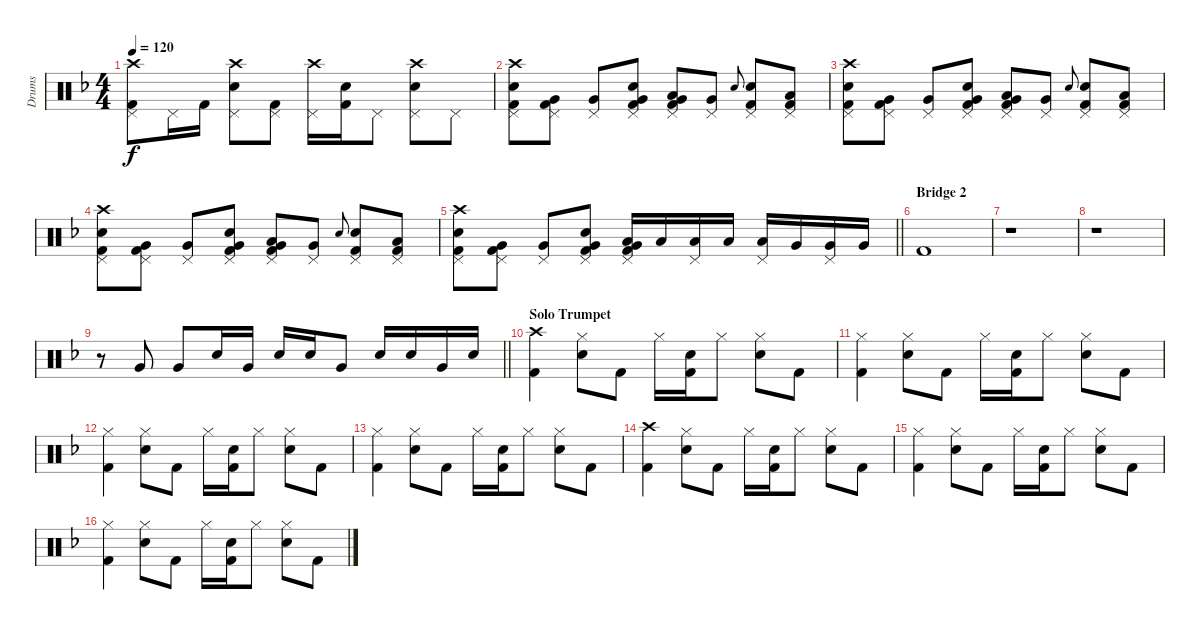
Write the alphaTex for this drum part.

\track ("Drums" "Drums") {instrument percussion}
\staff {score}
\articulation defaults
\ts (4 4)
\tempo 120
\clef neutral
\ks f
("Crash high (hit)" "Kick (hit) 2" "Pedal Hi-Hat (hit)").8{dy f} "Pedal Hi-Hat (hit)".16 "Kick (hit) 2".16 ("Crash high (hit)" "Snare (hit) 2" "Pedal Hi-Hat (hit)").8 ("Kick (hit) 2" "Pedal Hi-Hat (hit)").8 ("Crash high (hit)" "Pedal Hi-Hat (hit)").16 ("Snare (hit) 2" "Kick (hit) 2").16 "Pedal Hi-Hat (hit)".8 ("Crash high (hit)" "Snare (hit) 2" "Pedal Hi-Hat (hit)").8 "Pedal Hi-Hat (hit)".8 |
("Crash high (hit)" "Snare (hit) 2" "Kick (hit) 2" "Pedal Hi-Hat (hit)").8 ("Very Low Tom (hit)" "Kick (hit) 2" "Pedal Hi-Hat (hit)").8 ("Very Low Tom (hit)" "Pedal Hi-Hat (hit)").8 ("Snare (hit) 2" "Very Low Tom (hit)" "Kick (hit) 2" "Pedal Hi-Hat (hit)").8 ("Low Tom (hit)" "Very Low Tom (hit)" "Kick (hit) 2" "Pedal Hi-Hat (hit)").8 ("Very Low Tom (hit)" "Pedal Hi-Hat (hit)").8 "Snare (hit) 2".8{gr onbeat} ("Snare (hit) 2" "Kick (hit) 2" "Pedal Hi-Hat (hit)").8 ("Low Tom (hit)" "Kick (hit) 2" "Pedal Hi-Hat (hit)").8 |
("Crash high (hit)" "Snare (hit) 2" "Kick (hit) 2" "Pedal Hi-Hat (hit)").8 ("Very Low Tom (hit)" "Kick (hit) 2" "Pedal Hi-Hat (hit)").8 ("Very Low Tom (hit)" "Pedal Hi-Hat (hit)").8 ("Snare (hit) 2" "Very Low Tom (hit)" "Kick (hit) 2" "Pedal Hi-Hat (hit)").8 ("Low Tom (hit)" "Very Low Tom (hit)" "Kick (hit) 2" "Pedal Hi-Hat (hit)").8 ("Very Low Tom (hit)" "Pedal Hi-Hat (hit)").8 "Snare (hit) 2".8{gr onbeat} ("Snare (hit) 2" "Kick (hit) 2" "Pedal Hi-Hat (hit)").8 ("Low Tom (hit)" "Kick (hit) 2" "Pedal Hi-Hat (hit)").8 |
("Crash high (hit)" "Snare (hit) 2" "Kick (hit) 2" "Pedal Hi-Hat (hit)").8 ("Very Low Tom (hit)" "Kick (hit) 2" "Pedal Hi-Hat (hit)").8 ("Very Low Tom (hit)" "Pedal Hi-Hat (hit)").8 ("Snare (hit) 2" "Very Low Tom (hit)" "Kick (hit) 2" "Pedal Hi-Hat (hit)").8 ("Low Tom (hit)" "Very Low Tom (hit)" "Kick (hit) 2" "Pedal Hi-Hat (hit)").8 ("Very Low Tom (hit)" "Pedal Hi-Hat (hit)").8 "Snare (hit) 2".8{gr onbeat} ("Snare (hit) 2" "Kick (hit) 2" "Pedal Hi-Hat (hit)").8 ("Low Tom (hit)" "Kick (hit) 2" "Pedal Hi-Hat (hit)").8 |
\barLineRight lightlight
("Crash high (hit)" "Snare (hit) 2" "Kick (hit) 2" "Pedal Hi-Hat (hit)").8 ("Very Low Tom (hit)" "Kick (hit) 2" "Pedal Hi-Hat (hit)").8 ("Very Low Tom (hit)" "Pedal Hi-Hat (hit)").8 ("Snare (hit) 2" "Very Low Tom (hit)" "Kick (hit) 2" "Pedal Hi-Hat (hit)").8 ("Low Tom (hit)" "Very Low Tom (hit)" "Kick (hit) 2" "Pedal Hi-Hat (hit)").16 "Low Tom (hit)".16 ("Low Floor Tom (hit)" "Pedal Hi-Hat (hit)").16 "Low Floor Tom (hit)".16 ("Low Floor Tom (hit)" "Pedal Hi-Hat (hit)").16 "Very Low Tom (hit)".16 ("Very Low Tom (hit)" "Pedal Hi-Hat (hit)").16 "Very Low Tom (hit)".16 |
\section ("" "Bridge 2")
"Kick (hit) 2".1 |
r.1 |
r.1 |
\barLineRight lightlight
r.8 "Very Low Tom (hit)".8 "Very Low Tom (hit)".8 "Snare (hit) 2".16 "Very Low Tom (hit)".16 "Snare (hit) 2".16 "Snare (hit) 2".16 "Very Low Tom (hit)".8 "Snare (hit) 2".16 "Snare (hit) 2".16 "Very Low Tom (hit)".16 "Snare (hit) 2".16 |
\section ("" "Solo Trumpet")
("Crash high (hit)" "Kick (hit) 2").4 ("Hi-Hat (closed)" "Snare (hit) 2").8 "Kick (hit) 2".8 "Hi-Hat (closed)".16 ("Snare (hit) 2" "Kick (hit) 2").16 "Hi-Hat (closed)".8 ("Hi-Hat (closed)" "Snare (hit) 2").8 "Kick (hit) 2".8 |
("Hi-Hat (closed)" "Kick (hit) 2").4 ("Hi-Hat (closed)" "Snare (hit) 2").8 "Kick (hit) 2".8 "Hi-Hat (closed)".16 ("Snare (hit) 2" "Kick (hit) 2").16 "Hi-Hat (closed)".8 ("Hi-Hat (closed)" "Snare (hit) 2").8 "Kick (hit) 2".8 |
("Hi-Hat (closed)" "Kick (hit) 2").4 ("Hi-Hat (closed)" "Snare (hit) 2").8 "Kick (hit) 2".8 "Hi-Hat (closed)".16 ("Snare (hit) 2" "Kick (hit) 2").16 "Hi-Hat (closed)".8 ("Hi-Hat (closed)" "Snare (hit) 2").8 "Kick (hit) 2".8 |
("Hi-Hat (closed)" "Kick (hit) 2").4 ("Hi-Hat (closed)" "Snare (hit) 2").8 "Kick (hit) 2".8 "Hi-Hat (closed)".16 ("Snare (hit) 2" "Kick (hit) 2").16 "Hi-Hat (closed)".8 ("Hi-Hat (closed)" "Snare (hit) 2").8 "Kick (hit) 2".8 |
("Crash high (hit)" "Kick (hit) 2").4 ("Hi-Hat (closed)" "Snare (hit) 2").8 "Kick (hit) 2".8 "Hi-Hat (closed)".16 ("Snare (hit) 2" "Kick (hit) 2").16 "Hi-Hat (closed)".8 ("Hi-Hat (closed)" "Snare (hit) 2").8 "Kick (hit) 2".8 |
("Hi-Hat (closed)" "Kick (hit) 2").4 ("Hi-Hat (closed)" "Snare (hit) 2").8 "Kick (hit) 2".8 "Hi-Hat (closed)".16 ("Snare (hit) 2" "Kick (hit) 2").16 "Hi-Hat (closed)".8 ("Hi-Hat (closed)" "Snare (hit) 2").8 "Kick (hit) 2".8 |
("Hi-Hat (closed)" "Kick (hit) 2").4 ("Hi-Hat (closed)" "Snare (hit) 2").8 "Kick (hit) 2".8 "Hi-Hat (closed)".16 ("Snare (hit) 2" "Kick (hit) 2").16 "Hi-Hat (closed)".8 ("Hi-Hat (closed)" "Snare (hit) 2").8 "Kick (hit) 2".8
